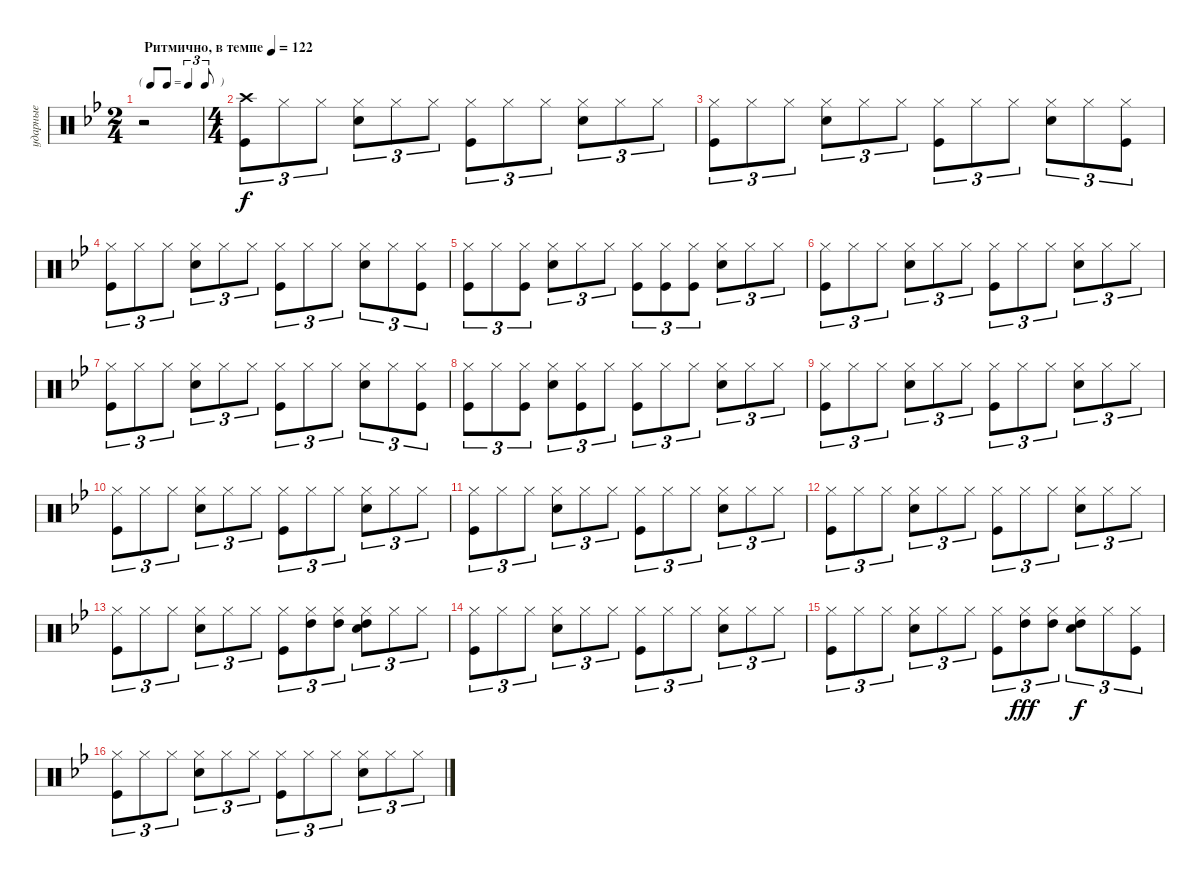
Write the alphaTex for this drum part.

\track ("ударные" "ударные") {instrument percussion}
\staff {score}
\articulation defaults
\ts (2 4)
\tf triplet8th
\tempo (122 "Ритмично, в темпе")
\clef neutral
\ks gminor
r.2{dy f} |
\ts (4 4)
("Kick (hit)" "Crash high (hit)").8{tu (3 2)} "Hi-Hat (closed)".8{tu (3 2)} "Hi-Hat (closed)".8{tu (3 2)} ("Hi-Hat (closed)" "Snare (hit) 2").8{tu (3 2)} "Hi-Hat (closed)".8{tu (3 2)} "Hi-Hat (closed)".8{tu (3 2)} ("Hi-Hat (closed)" "Kick (hit)").8{tu (3 2)} "Hi-Hat (closed)".8{tu (3 2)} "Hi-Hat (closed)".8{tu (3 2)} ("Hi-Hat (closed)" "Snare (hit) 2").8{tu (3 2)} "Hi-Hat (closed)".8{tu (3 2)} "Hi-Hat (closed)".8{tu (3 2)} |
("Hi-Hat (closed)" "Kick (hit)").8{tu (3 2)} "Hi-Hat (closed)".8{tu (3 2)} "Hi-Hat (closed)".8{tu (3 2)} ("Hi-Hat (closed)" "Snare (hit) 2").8{tu (3 2)} "Hi-Hat (closed)".8{tu (3 2)} "Hi-Hat (closed)".8{tu (3 2)} ("Hi-Hat (closed)" "Kick (hit)").8{tu (3 2)} "Hi-Hat (closed)".8{tu (3 2)} "Hi-Hat (closed)".8{tu (3 2)} ("Hi-Hat (closed)" "Snare (hit) 2").8{tu (3 2)} "Hi-Hat (closed)".8{tu (3 2)} ("Hi-Hat (closed)" "Kick (hit)").8{tu (3 2)} |
("Hi-Hat (closed)" "Kick (hit)").8{tu (3 2)} "Hi-Hat (closed)".8{tu (3 2)} "Hi-Hat (closed)".8{tu (3 2)} ("Hi-Hat (closed)" "Snare (hit) 2").8{tu (3 2)} "Hi-Hat (closed)".8{tu (3 2)} "Hi-Hat (closed)".8{tu (3 2)} ("Hi-Hat (closed)" "Kick (hit)").8{tu (3 2)} "Hi-Hat (closed)".8{tu (3 2)} "Hi-Hat (closed)".8{tu (3 2)} ("Hi-Hat (closed)" "Snare (hit) 2").8{tu (3 2)} "Hi-Hat (closed)".8{tu (3 2)} ("Hi-Hat (closed)" "Kick (hit)").8{tu (3 2)} |
("Hi-Hat (closed)" "Kick (hit)").8{tu (3 2)} "Hi-Hat (closed)".8{tu (3 2)} ("Hi-Hat (closed)" "Kick (hit)").8{tu (3 2)} ("Hi-Hat (closed)" "Snare (hit) 2").8{tu (3 2)} "Hi-Hat (closed)".8{tu (3 2)} "Hi-Hat (closed)".8{tu (3 2)} ("Hi-Hat (closed)" "Kick (hit)").8{tu (3 2)} ("Hi-Hat (closed)" "Kick (hit)").8{tu (3 2)} ("Hi-Hat (closed)" "Kick (hit)").8{tu (3 2)} ("Hi-Hat (closed)" "Snare (hit) 2").8{tu (3 2)} "Hi-Hat (closed)".8{tu (3 2)} "Hi-Hat (closed)".8{tu (3 2)} |
("Hi-Hat (closed)" "Kick (hit)").8{tu (3 2)} "Hi-Hat (closed)".8{tu (3 2)} "Hi-Hat (closed)".8{tu (3 2)} ("Hi-Hat (closed)" "Snare (hit) 2").8{tu (3 2)} "Hi-Hat (closed)".8{tu (3 2)} "Hi-Hat (closed)".8{tu (3 2)} ("Hi-Hat (closed)" "Kick (hit)").8{tu (3 2)} "Hi-Hat (closed)".8{tu (3 2)} "Hi-Hat (closed)".8{tu (3 2)} ("Hi-Hat (closed)" "Snare (hit) 2").8{tu (3 2)} "Hi-Hat (closed)".8{tu (3 2)} "Hi-Hat (closed)".8{tu (3 2)} |
("Hi-Hat (closed)" "Kick (hit)").8{tu (3 2)} "Hi-Hat (closed)".8{tu (3 2)} "Hi-Hat (closed)".8{tu (3 2)} ("Hi-Hat (closed)" "Snare (hit) 2").8{tu (3 2)} "Hi-Hat (closed)".8{tu (3 2)} "Hi-Hat (closed)".8{tu (3 2)} ("Hi-Hat (closed)" "Kick (hit)").8{tu (3 2)} "Hi-Hat (closed)".8{tu (3 2)} "Hi-Hat (closed)".8{tu (3 2)} ("Hi-Hat (closed)" "Snare (hit) 2").8{tu (3 2)} "Hi-Hat (closed)".8{tu (3 2)} ("Hi-Hat (closed)" "Kick (hit)").8{tu (3 2)} |
("Hi-Hat (closed)" "Kick (hit)").8{tu (3 2)} "Hi-Hat (closed)".8{tu (3 2)} ("Hi-Hat (closed)" "Kick (hit)").8{tu (3 2)} ("Hi-Hat (closed)" "Snare (hit) 2").8{tu (3 2)} ("Hi-Hat (closed)" "Kick (hit)").8{tu (3 2)} "Hi-Hat (closed)".8{tu (3 2)} ("Hi-Hat (closed)" "Kick (hit)").8{tu (3 2)} "Hi-Hat (closed)".8{tu (3 2)} "Hi-Hat (closed)".8{tu (3 2)} ("Hi-Hat (closed)" "Snare (hit) 2").8{tu (3 2)} "Hi-Hat (closed)".8{tu (3 2)} "Hi-Hat (closed)".8{tu (3 2)} |
("Hi-Hat (closed)" "Kick (hit)").8{tu (3 2)} "Hi-Hat (closed)".8{tu (3 2)} "Hi-Hat (closed)".8{tu (3 2)} ("Hi-Hat (closed)" "Snare (hit) 2").8{tu (3 2)} "Hi-Hat (closed)".8{tu (3 2)} "Hi-Hat (closed)".8{tu (3 2)} ("Hi-Hat (closed)" "Kick (hit)").8{tu (3 2)} "Hi-Hat (closed)".8{tu (3 2)} "Hi-Hat (closed)".8{tu (3 2)} ("Hi-Hat (closed)" "Snare (hit) 2").8{tu (3 2)} "Hi-Hat (closed)".8{tu (3 2)} "Hi-Hat (closed)".8{tu (3 2)} |
("Hi-Hat (closed)" "Kick (hit)").8{tu (3 2)} "Hi-Hat (closed)".8{tu (3 2)} "Hi-Hat (closed)".8{tu (3 2)} ("Hi-Hat (closed)" "Snare (hit) 2").8{tu (3 2)} "Hi-Hat (closed)".8{tu (3 2)} "Hi-Hat (closed)".8{tu (3 2)} ("Hi-Hat (closed)" "Kick (hit)").8{tu (3 2)} "Hi-Hat (closed)".8{tu (3 2)} "Hi-Hat (closed)".8{tu (3 2)} ("Hi-Hat (closed)" "Snare (hit) 2").8{tu (3 2)} "Hi-Hat (closed)".8{tu (3 2)} "Hi-Hat (closed)".8{tu (3 2)} |
("Hi-Hat (closed)" "Kick (hit)").8{tu (3 2)} "Hi-Hat (closed)".8{tu (3 2)} "Hi-Hat (closed)".8{tu (3 2)} ("Hi-Hat (closed)" "Snare (hit) 2").8{tu (3 2)} "Hi-Hat (closed)".8{tu (3 2)} "Hi-Hat (closed)".8{tu (3 2)} ("Hi-Hat (closed)" "Kick (hit)").8{tu (3 2)} "Hi-Hat (closed)".8{tu (3 2)} "Hi-Hat (closed)".8{tu (3 2)} ("Hi-Hat (closed)" "Snare (hit) 2").8{tu (3 2)} "Hi-Hat (closed)".8{tu (3 2)} "Hi-Hat (closed)".8{tu (3 2)} |
("Hi-Hat (closed)" "Kick (hit)").8{tu (3 2)} "Hi-Hat (closed)".8{tu (3 2)} "Hi-Hat (closed)".8{tu (3 2)} ("Hi-Hat (closed)" "Snare (hit) 2").8{tu (3 2)} "Hi-Hat (closed)".8{tu (3 2)} "Hi-Hat (closed)".8{tu (3 2)} ("Hi-Hat (closed)" "Kick (hit)").8{tu (3 2)} "Hi-Hat (closed)".8{tu (3 2)} "Hi-Hat (closed)".8{tu (3 2)} ("Hi-Hat (closed)" "Snare (hit) 2").8{tu (3 2)} "Hi-Hat (closed)".8{tu (3 2)} "Hi-Hat (closed)".8{tu (3 2)} |
("Hi-Hat (closed)" "Kick (hit)").8{tu (3 2)} "Hi-Hat (closed)".8{tu (3 2)} "Hi-Hat (closed)".8{tu (3 2)} ("Hi-Hat (closed)" "Snare (hit) 2").8{tu (3 2)} "Hi-Hat (closed)".8{tu (3 2)} "Hi-Hat (closed)".8{tu (3 2)} ("Hi-Hat (closed)" "Kick (hit)").8{tu (3 2)} ("Hi-Hat (closed)" "High Tom (hit)").8{tu (3 2)} ("Hi-Hat (closed)" "High Tom (hit)").8{tu (3 2)} ("Hi-Hat (closed)" "Snare (hit) 2" "High Tom (hit)").8{tu (3 2)} "Hi-Hat (closed)".8{tu (3 2)} "Hi-Hat (closed)".8{tu (3 2)} |
("Hi-Hat (closed)" "Kick (hit)").8{tu (3 2)} "Hi-Hat (closed)".8{tu (3 2)} "Hi-Hat (closed)".8{tu (3 2)} ("Hi-Hat (closed)" "Snare (hit) 2").8{tu (3 2)} "Hi-Hat (closed)".8{tu (3 2)} "Hi-Hat (closed)".8{tu (3 2)} ("Hi-Hat (closed)" "Kick (hit)").8{tu (3 2)} "Hi-Hat (closed)".8{tu (3 2)} "Hi-Hat (closed)".8{tu (3 2)} ("Hi-Hat (closed)" "Snare (hit) 2").8{tu (3 2)} "Hi-Hat (closed)".8{tu (3 2)} "Hi-Hat (closed)".8{tu (3 2)} |
("Hi-Hat (closed)" "Kick (hit)").8{tu (3 2)} "Hi-Hat (closed)".8{tu (3 2)} "Hi-Hat (closed)".8{tu (3 2)} ("Hi-Hat (closed)" "Snare (hit) 2").8{tu (3 2)} "Hi-Hat (closed)".8{tu (3 2)} "Hi-Hat (closed)".8{tu (3 2)} ("Hi-Hat (closed)" "Kick (hit)").8{tu (3 2)} ("Hi-Hat (closed)" "High Tom (hit)").8{tu (3 2) dy fff} ("Hi-Hat (closed)" "High Tom (hit)").8{tu (3 2)} ("Hi-Hat (closed)" "Snare (hit) 2" "High Tom (hit)").8{tu (3 2) dy f} "Hi-Hat (closed)".8{tu (3 2)} ("Hi-Hat (closed)" "Kick (hit)").8{tu (3 2)} |
("Hi-Hat (closed)" "Kick (hit)").8{tu (3 2)} "Hi-Hat (closed)".8{tu (3 2)} "Hi-Hat (closed)".8{tu (3 2)} ("Hi-Hat (closed)" "Snare (hit) 2").8{tu (3 2)} "Hi-Hat (closed)".8{tu (3 2)} "Hi-Hat (closed)".8{tu (3 2)} ("Hi-Hat (closed)" "Kick (hit)").8{tu (3 2)} "Hi-Hat (closed)".8{tu (3 2)} "Hi-Hat (closed)".8{tu (3 2)} ("Hi-Hat (closed)" "Snare (hit) 2").8{tu (3 2)} "Hi-Hat (closed)".8{tu (3 2)} "Hi-Hat (closed)".8{tu (3 2)}
